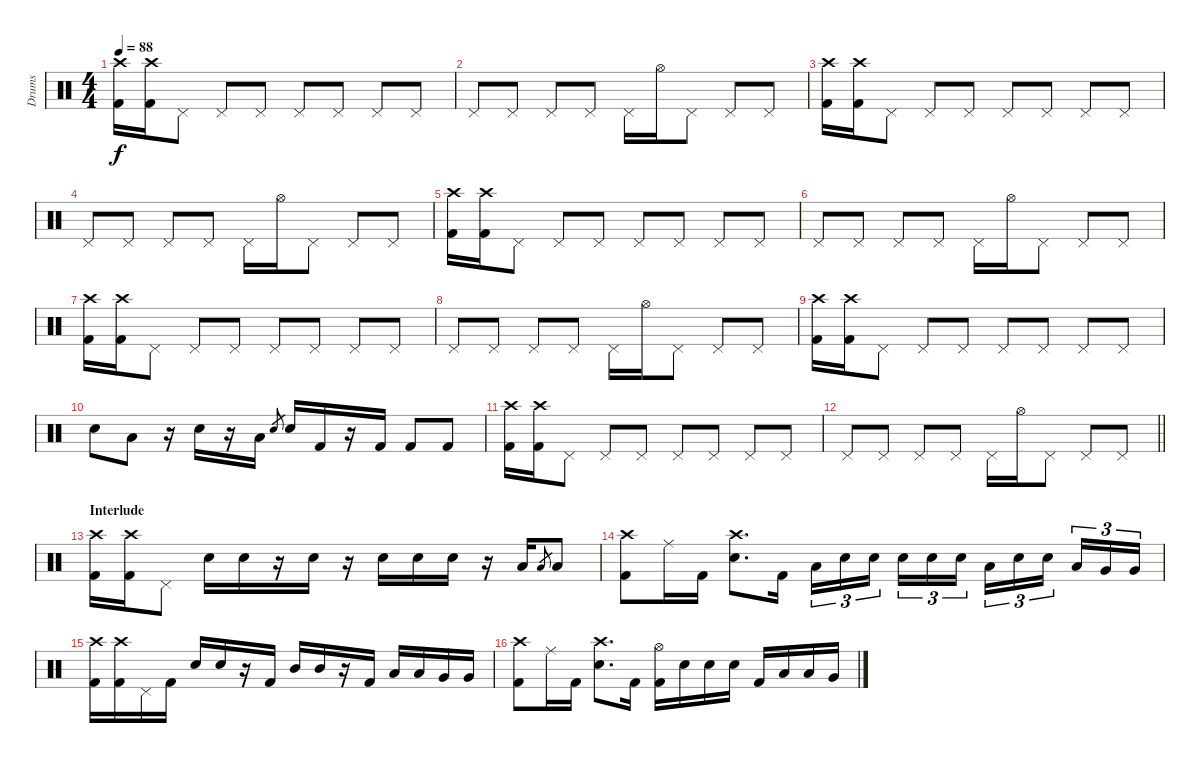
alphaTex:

\track ("Drums" "Drums") {instrument percussion}
\staff {score}
\articulation defaults
\ts (4 4)
\tempo 88
\clef neutral
\ks c
("Crash high (hit)" "Kick (hit) 2").16{dy f} ("Crash high (hit)" "Kick (hit) 2").16 "Pedal Hi-Hat (hit)".8 "Pedal Hi-Hat (hit)".8 "Pedal Hi-Hat (hit)".8 "Pedal Hi-Hat (hit)".8 "Pedal Hi-Hat (hit)".8 "Pedal Hi-Hat (hit)".8 "Pedal Hi-Hat (hit)".8 |
"Pedal Hi-Hat (hit)".8 "Pedal Hi-Hat (hit)".8 "Pedal Hi-Hat (hit)".8 "Pedal Hi-Hat (hit)".8 "Pedal Hi-Hat (hit)".16 "Hi-Hat (open)".16 "Pedal Hi-Hat (hit)".8 "Pedal Hi-Hat (hit)".8 "Pedal Hi-Hat (hit)".8 |
("Crash high (hit)" "Kick (hit) 2").16 ("Crash high (hit)" "Kick (hit) 2").16 "Pedal Hi-Hat (hit)".8 "Pedal Hi-Hat (hit)".8 "Pedal Hi-Hat (hit)".8 "Pedal Hi-Hat (hit)".8 "Pedal Hi-Hat (hit)".8 "Pedal Hi-Hat (hit)".8 "Pedal Hi-Hat (hit)".8 |
"Pedal Hi-Hat (hit)".8 "Pedal Hi-Hat (hit)".8 "Pedal Hi-Hat (hit)".8 "Pedal Hi-Hat (hit)".8 "Pedal Hi-Hat (hit)".16 "Hi-Hat (open)".16 "Pedal Hi-Hat (hit)".8 "Pedal Hi-Hat (hit)".8 "Pedal Hi-Hat (hit)".8 |
("Crash high (hit)" "Kick (hit) 2").16 ("Crash high (hit)" "Kick (hit) 2").16 "Pedal Hi-Hat (hit)".8 "Pedal Hi-Hat (hit)".8 "Pedal Hi-Hat (hit)".8 "Pedal Hi-Hat (hit)".8 "Pedal Hi-Hat (hit)".8 "Pedal Hi-Hat (hit)".8 "Pedal Hi-Hat (hit)".8 |
"Pedal Hi-Hat (hit)".8 "Pedal Hi-Hat (hit)".8 "Pedal Hi-Hat (hit)".8 "Pedal Hi-Hat (hit)".8 "Pedal Hi-Hat (hit)".16 "Hi-Hat (open)".16 "Pedal Hi-Hat (hit)".8 "Pedal Hi-Hat (hit)".8 "Pedal Hi-Hat (hit)".8 |
("Crash high (hit)" "Kick (hit) 2").16 ("Crash high (hit)" "Kick (hit) 2").16 "Pedal Hi-Hat (hit)".8 "Pedal Hi-Hat (hit)".8 "Pedal Hi-Hat (hit)".8 "Pedal Hi-Hat (hit)".8 "Pedal Hi-Hat (hit)".8 "Pedal Hi-Hat (hit)".8 "Pedal Hi-Hat (hit)".8 |
"Pedal Hi-Hat (hit)".8 "Pedal Hi-Hat (hit)".8 "Pedal Hi-Hat (hit)".8 "Pedal Hi-Hat (hit)".8 "Pedal Hi-Hat (hit)".16 "Hi-Hat (open)".16 "Pedal Hi-Hat (hit)".8 "Pedal Hi-Hat (hit)".8 "Pedal Hi-Hat (hit)".8 |
("Crash high (hit)" "Kick (hit) 2").16 ("Crash high (hit)" "Kick (hit) 2").16 "Pedal Hi-Hat (hit)".8 "Pedal Hi-Hat (hit)".8 "Pedal Hi-Hat (hit)".8 "Pedal Hi-Hat (hit)".8 "Pedal Hi-Hat (hit)".8 "Pedal Hi-Hat (hit)".8 "Pedal Hi-Hat (hit)".8 |
"Snare (hit) 2".8 "Low Tom (hit)".8 r.16 "Snare (hit) 2".16 r.16 "Low Tom (hit)".16 "Snare (hit) 2".8{gr} "Snare (hit) 2".16 "Kick (hit) 2".16 r.16 "Kick (hit) 2".16 "Kick (hit) 2".8 "Kick (hit) 2".8 |
("Crash high (hit)" "Kick (hit) 2").16 ("Crash high (hit)" "Kick (hit) 2").16 "Pedal Hi-Hat (hit)".8 "Pedal Hi-Hat (hit)".8 "Pedal Hi-Hat (hit)".8 "Pedal Hi-Hat (hit)".8 "Pedal Hi-Hat (hit)".8 "Pedal Hi-Hat (hit)".8 "Pedal Hi-Hat (hit)".8 |
\barLineRight lightlight "Pedal Hi-Hat (hit)".8 "Pedal Hi-Hat (hit)".8 "Pedal Hi-Hat (hit)".8 "Pedal Hi-Hat (hit)".8 "Pedal Hi-Hat (hit)".16 "Hi-Hat (open)".16 "Pedal Hi-Hat (hit)".8 "Pedal Hi-Hat (hit)".8 "Pedal Hi-Hat (hit)".8
|
\section ("" "Interlude")
("Crash high (hit)" "Kick (hit) 2").16 ("Crash high (hit)" "Kick (hit) 2").16 "Pedal Hi-Hat (hit)".8 "Snare (hit) 2".16 "Snare (hit) 2".16 r.16 "Snare (hit) 2".16 r.16 "Snare (hit) 2".16 "Snare (hit) 2".16 "Snare (hit) 2".16 r.16 "Low Tom (hit)".16 "Low Tom (hit)".8{gr} "Low Tom (hit)".8 |
("Crash high (hit)" "Kick (hit) 2").8 "Ride (middle)".16 "Kick (hit) 2".16 ("Crash high (hit)" "Snare (hit) 2").8{d} "Kick (hit) 2".16 "Low Tom (hit)".16{tu (3 2)} "Snare (hit) 2".16{tu (3 2)} "Snare (hit) 2".16{tu (3 2) beam splitsecondary} "Snare (hit) 2".16{tu (3 2)} "Snare (hit) 2".16{tu (3 2)} "Snare (hit) 2".16{tu (3 2)} "Low Tom (hit)".16{tu (3 2)} "Snare (hit) 2".16{tu (3 2)} "Snare (hit) 2".16{tu (3 2) beam splitsecondary} "Low Tom (hit)".16{tu (3 2)} "Very Low Tom (hit)".16{tu (3 2)} "Very Low Tom (hit)".16{tu (3 2)} |
("Crash high (hit)" "Kick (hit) 2").16 ("Crash high (hit)" "Kick (hit) 2").16 "Pedal Hi-Hat (hit)".16 "Kick (hit) 2".16 "Snare (hit) 2".16 "Snare (hit) 2".16 r.16 "Kick (hit) 2".16 "Mid Tom (hit)".16 "Mid Tom (hit)".16 r.16 "Kick (hit) 2".16 "Low Tom (hit)".16 "Low Tom (hit)".16 "Very Low Tom (hit)".16 "Very Low Tom (hit)".16 |
("Crash high (hit)" "Kick (hit) 2").8 "Ride (middle)".16 "Kick (hit) 2".16 ("Crash high (hit)" "Snare (hit) 2").8{d} "Kick (hit) 2".16 ("Hi-Hat (open)" "Kick (hit) 2").16 "Snare (hit) 2".16 "Snare (hit) 2".16 "Snare (hit) 2".16 "Kick (hit) 2".16 "Low Tom (hit)".16 "Low Tom (hit)".16 "Very Low Tom (hit)".16
